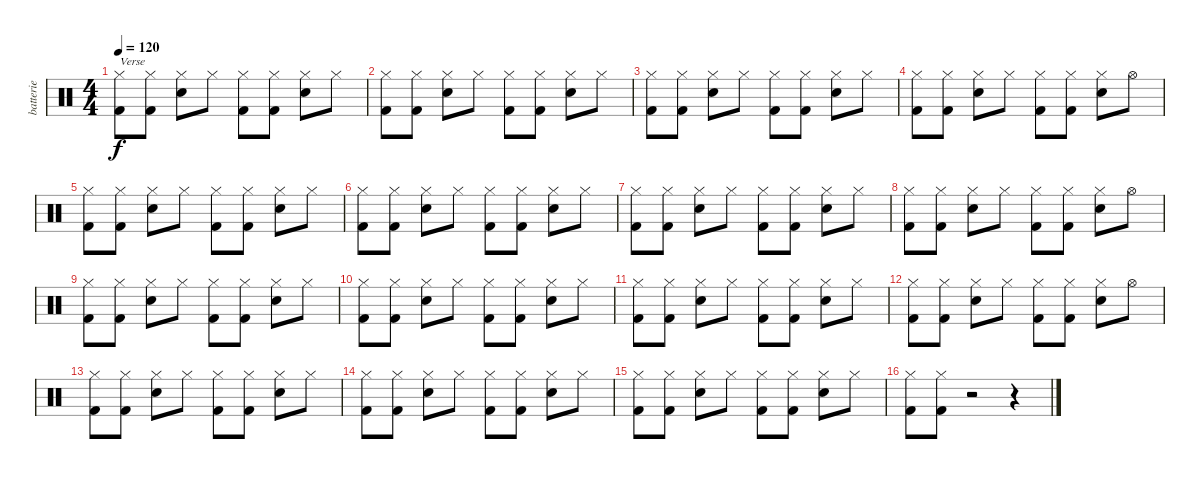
\track ("batterie" "batterie") {instrument percussion}
\staff {score}
\articulation defaults
\ts (4 4)
\tempo 120
\clef neutral
\ks c
("Hi-Hat (closed)" "Kick (hit) 2").8{txt "Verse" dy f} ("Hi-Hat (closed)" "Kick (hit) 2").8 ("Hi-Hat (closed)" "Electric Snare (hit)").8 "Hi-Hat (closed)".8 ("Hi-Hat (closed)" "Kick (hit) 2").8 ("Hi-Hat (closed)" "Kick (hit) 2").8 ("Hi-Hat (closed)" "Electric Snare (hit)").8 "Hi-Hat (closed)".8 |
("Hi-Hat (closed)" "Kick (hit) 2").8 ("Hi-Hat (closed)" "Kick (hit) 2").8 ("Hi-Hat (closed)" "Electric Snare (hit)").8 "Hi-Hat (closed)".8 ("Hi-Hat (closed)" "Kick (hit) 2").8 ("Hi-Hat (closed)" "Kick (hit) 2").8 ("Hi-Hat (closed)" "Electric Snare (hit)").8 "Hi-Hat (closed)".8 |
("Hi-Hat (closed)" "Kick (hit) 2").8 ("Hi-Hat (closed)" "Kick (hit) 2").8 ("Hi-Hat (closed)" "Electric Snare (hit)").8 "Hi-Hat (closed)".8 ("Hi-Hat (closed)" "Kick (hit) 2").8 ("Hi-Hat (closed)" "Kick (hit) 2").8 ("Hi-Hat (closed)" "Electric Snare (hit)").8 "Hi-Hat (closed)".8 |
("Hi-Hat (closed)" "Kick (hit) 2").8 ("Hi-Hat (closed)" "Kick (hit) 2").8 ("Hi-Hat (closed)" "Electric Snare (hit)").8 "Hi-Hat (closed)".8 ("Hi-Hat (closed)" "Kick (hit) 2").8 ("Hi-Hat (closed)" "Kick (hit) 2").8 ("Hi-Hat (closed)" "Electric Snare (hit)").8 "Hi-Hat (open)".8 |
("Hi-Hat (closed)" "Kick (hit) 2").8 ("Hi-Hat (closed)" "Kick (hit) 2").8 ("Hi-Hat (closed)" "Electric Snare (hit)").8 "Hi-Hat (closed)".8 ("Hi-Hat (closed)" "Kick (hit) 2").8 ("Hi-Hat (closed)" "Kick (hit) 2").8 ("Hi-Hat (closed)" "Electric Snare (hit)").8 "Hi-Hat (closed)".8 |
("Hi-Hat (closed)" "Kick (hit) 2").8 ("Hi-Hat (closed)" "Kick (hit) 2").8 ("Hi-Hat (closed)" "Electric Snare (hit)").8 "Hi-Hat (closed)".8 ("Hi-Hat (closed)" "Kick (hit) 2").8 ("Hi-Hat (closed)" "Kick (hit) 2").8 ("Hi-Hat (closed)" "Electric Snare (hit)").8 "Hi-Hat (closed)".8 |
("Hi-Hat (closed)" "Kick (hit) 2").8 ("Hi-Hat (closed)" "Kick (hit) 2").8 ("Hi-Hat (closed)" "Electric Snare (hit)").8 "Hi-Hat (closed)".8 ("Hi-Hat (closed)" "Kick (hit) 2").8 ("Hi-Hat (closed)" "Kick (hit) 2").8 ("Hi-Hat (closed)" "Electric Snare (hit)").8 "Hi-Hat (closed)".8 |
("Hi-Hat (closed)" "Kick (hit) 2").8 ("Hi-Hat (closed)" "Kick (hit) 2").8 ("Hi-Hat (closed)" "Electric Snare (hit)").8 "Hi-Hat (closed)".8 ("Hi-Hat (closed)" "Kick (hit) 2").8 ("Hi-Hat (closed)" "Kick (hit) 2").8 ("Hi-Hat (closed)" "Electric Snare (hit)").8 "Hi-Hat (open)".8 |
("Hi-Hat (closed)" "Kick (hit) 2").8 ("Hi-Hat (closed)" "Kick (hit) 2").8 ("Hi-Hat (closed)" "Electric Snare (hit)").8 "Hi-Hat (closed)".8 ("Hi-Hat (closed)" "Kick (hit) 2").8 ("Hi-Hat (closed)" "Kick (hit) 2").8 ("Hi-Hat (closed)" "Electric Snare (hit)").8 "Hi-Hat (closed)".8 |
("Hi-Hat (closed)" "Kick (hit) 2").8 ("Hi-Hat (closed)" "Kick (hit) 2").8 ("Hi-Hat (closed)" "Electric Snare (hit)").8 "Hi-Hat (closed)".8 ("Hi-Hat (closed)" "Kick (hit) 2").8 ("Hi-Hat (closed)" "Kick (hit) 2").8 ("Hi-Hat (closed)" "Electric Snare (hit)").8 "Hi-Hat (closed)".8 |
("Hi-Hat (closed)" "Kick (hit) 2").8 ("Hi-Hat (closed)" "Kick (hit) 2").8 ("Hi-Hat (closed)" "Electric Snare (hit)").8 "Hi-Hat (closed)".8 ("Hi-Hat (closed)" "Kick (hit) 2").8 ("Hi-Hat (closed)" "Kick (hit) 2").8 ("Hi-Hat (closed)" "Electric Snare (hit)").8 "Hi-Hat (closed)".8 |
("Hi-Hat (closed)" "Kick (hit) 2").8 ("Hi-Hat (closed)" "Kick (hit) 2").8 ("Hi-Hat (closed)" "Electric Snare (hit)").8 "Hi-Hat (closed)".8 ("Hi-Hat (closed)" "Kick (hit) 2").8 ("Hi-Hat (closed)" "Kick (hit) 2").8 ("Hi-Hat (closed)" "Electric Snare (hit)").8 "Hi-Hat (open)".8 |
("Hi-Hat (closed)" "Kick (hit) 2").8 ("Hi-Hat (closed)" "Kick (hit) 2").8 ("Hi-Hat (closed)" "Electric Snare (hit)").8 "Hi-Hat (closed)".8 ("Hi-Hat (closed)" "Kick (hit) 2").8 ("Hi-Hat (closed)" "Kick (hit) 2").8 ("Hi-Hat (closed)" "Electric Snare (hit)").8 "Hi-Hat (closed)".8 |
("Hi-Hat (closed)" "Kick (hit) 2").8 ("Hi-Hat (closed)" "Kick (hit) 2").8 ("Hi-Hat (closed)" "Electric Snare (hit)").8 "Hi-Hat (closed)".8 ("Hi-Hat (closed)" "Kick (hit) 2").8 ("Hi-Hat (closed)" "Kick (hit) 2").8 ("Hi-Hat (closed)" "Electric Snare (hit)").8 "Hi-Hat (closed)".8 |
("Hi-Hat (closed)" "Kick (hit) 2").8 ("Hi-Hat (closed)" "Kick (hit) 2").8 ("Hi-Hat (closed)" "Electric Snare (hit)").8 "Hi-Hat (closed)".8 ("Hi-Hat (closed)" "Kick (hit) 2").8 ("Hi-Hat (closed)" "Kick (hit) 2").8 ("Hi-Hat (closed)" "Electric Snare (hit)").8 "Hi-Hat (closed)".8 |
("Hi-Hat (closed)" "Kick (hit) 2").8 ("Hi-Hat (closed)" "Kick (hit) 2").8 r.2 r.4
